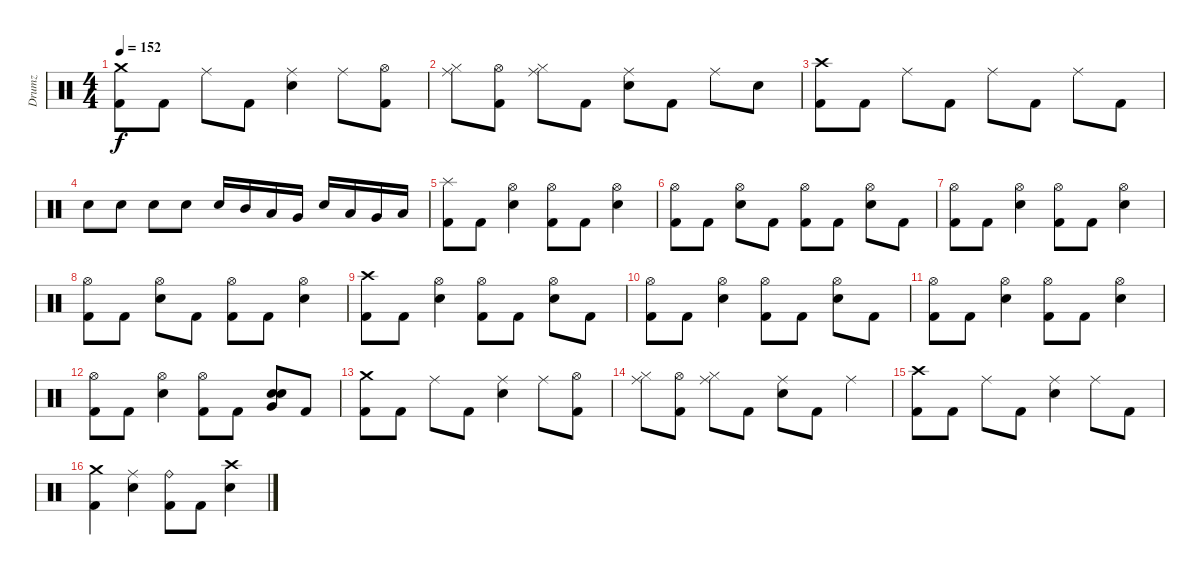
\track ("Drumz" "Drumz") {instrument percussion}
\staff {score}
\articulation defaults
\ts (4 4)
\tempo 152
\clef neutral
\ks c
("Kick (hit) 2" "Crash medium (hit)").8{dy f} "Kick (hit) 2".8 "Ride (middle)".8 "Kick (hit) 2".8 ("Snare (hit) 2" "Ride (middle)").4 "Ride (middle)".8 ("Kick (hit) 2" "Hi-Hat (open)").8 |
("Hi-Hat (closed)" "Ride (middle)").8 ("Kick (hit) 2" "Hi-Hat (open)").8 ("Hi-Hat (closed)" "Ride (middle)").8 "Kick (hit) 2".8 ("Snare (hit) 2" "Ride (middle)").8 "Kick (hit) 2".8 "Ride (middle)".8 "Snare (hit) 2".8 |
("Kick (hit) 2" "Crash high (hit)").8 "Kick (hit) 2".8 "Ride (middle)".8 "Kick (hit) 2".8 "Ride (middle)".8 "Kick (hit) 2".8 "Ride (middle)".8 "Kick (hit) 2".8 |
"Snare (hit) 2".8 "Snare (hit) 2".8 "Snare (hit) 2".8 "Snare (hit) 2".8 "Snare (hit) 2".16 "Mid Tom (hit)".16 "Low Tom (hit)".16 "Very Low Tom (hit)".16 "Snare (hit) 2".16 "Low Tom (hit)".16 "Very Low Tom (hit)".16 "Low Floor Tom (hit)".16 |
("Kick (hit) 2" "Splash (hit)").8 "Kick (hit) 2".8 ("Snare (hit) 2" "Hi-Hat (open)").4 ("Kick (hit) 2" "Hi-Hat (open)").8 "Kick (hit) 2".8 ("Snare (hit) 2" "Hi-Hat (open)").4 |
("Kick (hit) 2" "Hi-Hat (open)").8 "Kick (hit) 2".8 ("Snare (hit) 2" "Hi-Hat (open)").8 "Kick (hit) 2".8 ("Kick (hit) 2" "Hi-Hat (open)").8 "Kick (hit) 2".8 ("Snare (hit) 2" "Hi-Hat (open)").8 "Kick (hit) 2".8 |
("Kick (hit) 2" "Hi-Hat (open)").8 "Kick (hit) 2".8 ("Snare (hit) 2" "Hi-Hat (open)").4 ("Kick (hit) 2" "Hi-Hat (open)").8 "Kick (hit) 2".8 ("Snare (hit) 2" "Hi-Hat (open)").4 |
("Kick (hit) 2" "Hi-Hat (open)").8 "Kick (hit) 2".8 ("Snare (hit) 2" "Hi-Hat (open)").8 "Kick (hit) 2".8 ("Kick (hit) 2" "Hi-Hat (open)").8 "Kick (hit) 2".8 ("Snare (hit) 2" "Hi-Hat (open)").4 |
("Kick (hit) 2" "Crash high (hit)").8 "Kick (hit) 2".8 ("Snare (hit) 2" "Hi-Hat (open)").4 ("Kick (hit) 2" "Hi-Hat (open)").8 "Kick (hit) 2".8 ("Snare (hit) 2" "Hi-Hat (open)").8 "Kick (hit) 2".8 |
("Kick (hit) 2" "Hi-Hat (open)").8 "Kick (hit) 2".8 ("Snare (hit) 2" "Hi-Hat (open)").4 ("Kick (hit) 2" "Hi-Hat (open)").8 "Kick (hit) 2".8 ("Snare (hit) 2" "Hi-Hat (open)").8 "Kick (hit) 2".8 |
("Kick (hit) 2" "Hi-Hat (open)").8 "Kick (hit) 2".8 ("Snare (hit) 2" "Hi-Hat (open)").4 ("Kick (hit) 2" "Hi-Hat (open)").8 "Kick (hit) 2".8 ("Snare (hit) 2" "Hi-Hat (open)").4 |
("Kick (hit) 2" "Hi-Hat (open)").8 "Kick (hit) 2".8 ("Snare (hit) 2" "Hi-Hat (open)").4 ("Kick (hit) 2" "Hi-Hat (open)").8 "Kick (hit) 2".8 ("Snare (hit) 2" "Snare (hit) 2" "Very Low Tom (hit)").8 "Kick (hit) 2".8 |
("Kick (hit) 2" "Crash medium (hit)").8 "Kick (hit) 2".8 "Ride (middle)".8 "Kick (hit) 2".8 ("Snare (hit) 2" "Ride (middle)").4 "Ride (middle)".8 ("Kick (hit) 2" "Hi-Hat (open)").8 |
("Hi-Hat (closed)" "Ride (middle)").8 ("Kick (hit) 2" "Hi-Hat (open)").8 ("Hi-Hat (closed)" "Ride (middle)").8 "Kick (hit) 2".8 ("Snare (hit) 2" "Ride (middle)").8 "Kick (hit) 2".8 "Ride (middle)".4 |
("Kick (hit) 2" "Crash high (hit)").8 "Kick (hit) 2".8 "Ride (middle)".8 "Kick (hit) 2".8 ("Snare (hit) 2" "Ride (middle)").4 "Ride (middle)".8 "Kick (hit) 2".8 |
("Kick (hit) 2" "Crash medium (hit)").4 ("Snare (hit) 2" "Ride (middle)").4 ("Kick (hit) 2" "Ride (bell)").8 "Kick (hit) 2".8 ("Snare (hit) 2" "Crash high (hit)").4
